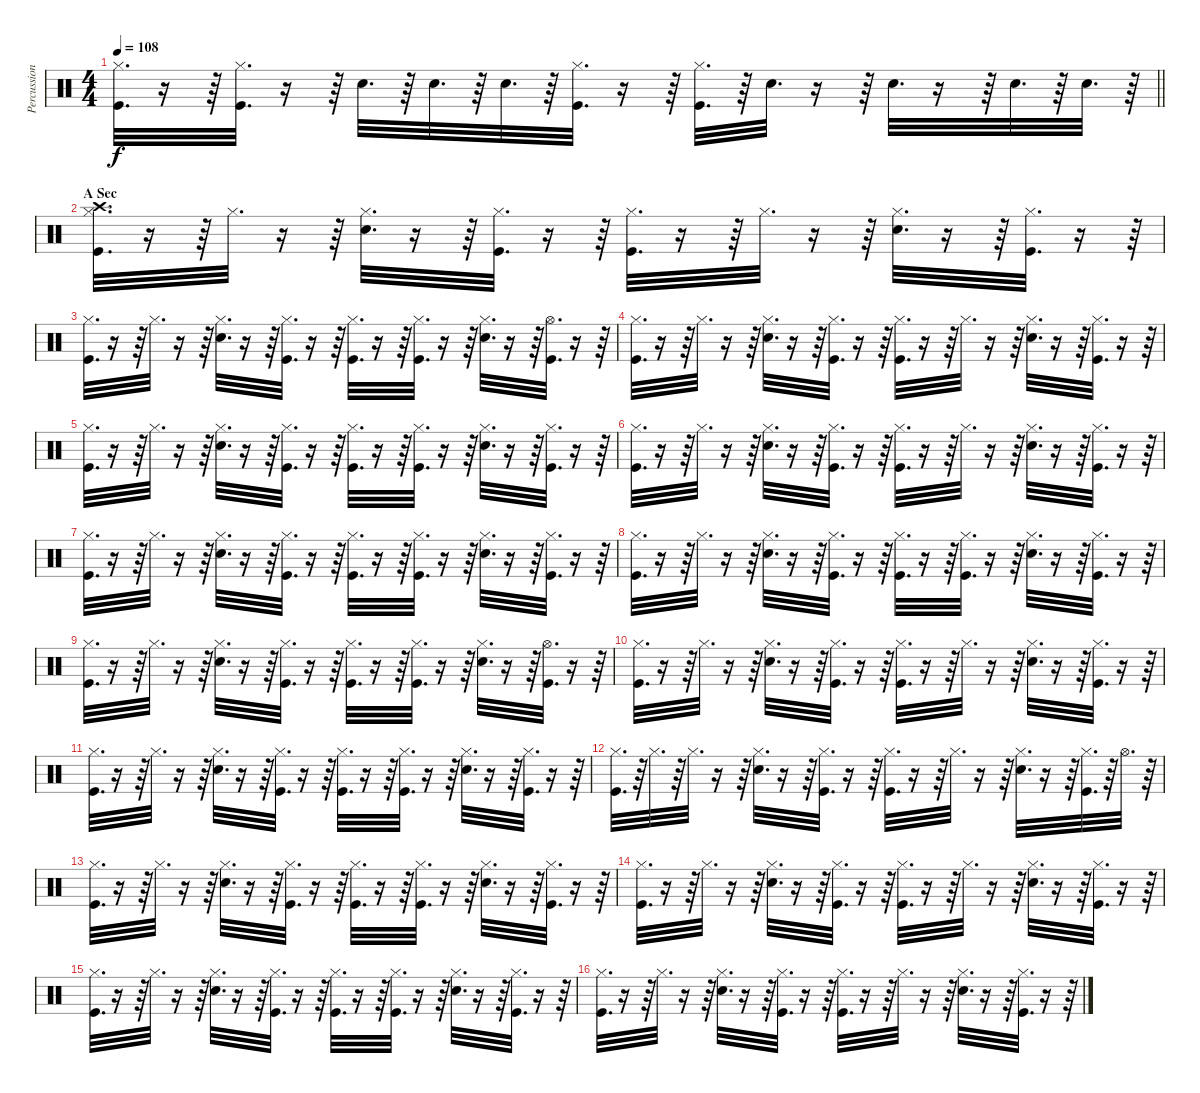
\track ("Percussions" "Percussion") {instrument percussion}
\staff {score}
\articulation defaults
\ts (4 4)
\tempo 108
\clef neutral
\barLineRight lightlight
\ks c
("Hi-Hat (closed)" "Kick (hit)").32{d dy f} r.16 r.64 ("Hi-Hat (closed)" "Kick (hit)").32{d} r.16 r.64 "Snare (hit) 2".32{d} r.64 "Snare (hit) 2".32{d} r.64 "Snare (hit) 2".32{d} r.64 ("Kick (hit)" "Hi-Hat (closed)").32{d} r.16 r.64 ("Kick (hit)" "Hi-Hat (closed)").32{d} r.64 "Snare (hit) 2".32{d} r.16 r.64 "Snare (hit) 2".32{d} r.16 r.64 "Snare (hit) 2".32{d} r.64 "Snare (hit) 2".32{d} r.64 |
\section ("" "A Sec")
("Crash high (hit)" "Hi-Hat (closed)" "Kick (hit)").32{d} r.16 r.64 "Hi-Hat (closed)".32{d} r.16 r.64 ("Hi-Hat (closed)" "Snare (hit) 2").32{d} r.16 r.64 ("Hi-Hat (closed)" "Kick (hit)").32{d} r.16 r.64 ("Hi-Hat (closed)" "Kick (hit)").32{d} r.16 r.64 "Hi-Hat (closed)".32{d} r.16 r.64 ("Hi-Hat (closed)" "Snare (hit) 2").32{d} r.16 r.64 ("Hi-Hat (closed)" "Kick (hit)").32{d} r.16 r.64 |
("Hi-Hat (closed)" "Kick (hit)").32{d} r.16 r.64 "Hi-Hat (closed)".32{d} r.16 r.64 ("Hi-Hat (closed)" "Snare (hit) 2").32{d} r.16 r.64 ("Hi-Hat (closed)" "Kick (hit)").32{d} r.16 r.64 ("Hi-Hat (closed)" "Kick (hit)").32{d} r.16 r.64 ("Hi-Hat (closed)" "Kick (hit)").32{d} r.16 r.64 ("Hi-Hat (closed)" "Snare (hit) 2").32{d} r.16 r.64 ("Hi-Hat (open)" "Kick (hit)").32{d} r.16 r.64 |
("Hi-Hat (closed)" "Kick (hit)").32{d} r.16 r.64 "Hi-Hat (closed)".32{d} r.16 r.64 ("Hi-Hat (closed)" "Snare (hit) 2").32{d} r.16 r.64 ("Hi-Hat (closed)" "Kick (hit)").32{d} r.16 r.64 ("Hi-Hat (closed)" "Kick (hit)").32{d} r.16 r.64 "Hi-Hat (closed)".32{d} r.16 r.64 ("Hi-Hat (closed)" "Snare (hit) 2").32{d} r.16 r.64 ("Hi-Hat (closed)" "Kick (hit)").32{d} r.16 r.64 |
("Hi-Hat (closed)" "Kick (hit)").32{d} r.16 r.64 "Hi-Hat (closed)".32{d} r.16 r.64 ("Hi-Hat (closed)" "Snare (hit) 2").32{d} r.16 r.64 ("Hi-Hat (closed)" "Kick (hit)").32{d} r.16 r.64 ("Hi-Hat (closed)" "Kick (hit)").32{d} r.16 r.64 ("Hi-Hat (closed)" "Kick (hit)").32{d} r.16 r.64 ("Hi-Hat (closed)" "Snare (hit) 2").32{d} r.16 r.64 ("Hi-Hat (closed)" "Kick (hit)").32{d} r.16 r.64 |
("Hi-Hat (closed)" "Kick (hit)").32{d} r.16 r.64 "Hi-Hat (closed)".32{d} r.16 r.64 ("Hi-Hat (closed)" "Snare (hit) 2").32{d} r.16 r.64 ("Hi-Hat (closed)" "Kick (hit)").32{d} r.16 r.64 ("Hi-Hat (closed)" "Kick (hit)").32{d} r.16 r.64 "Hi-Hat (closed)".32{d} r.16 r.64 ("Hi-Hat (closed)" "Snare (hit) 2").32{d} r.16 r.64 ("Hi-Hat (closed)" "Kick (hit)").32{d} r.16 r.64 |
("Hi-Hat (closed)" "Kick (hit)").32{d} r.16 r.64 "Hi-Hat (closed)".32{d} r.16 r.64 ("Hi-Hat (closed)" "Snare (hit) 2").32{d} r.16 r.64 ("Hi-Hat (closed)" "Kick (hit)").32{d} r.16 r.64 ("Hi-Hat (closed)" "Kick (hit)").32{d} r.16 r.64 ("Hi-Hat (closed)" "Kick (hit)").32{d} r.16 r.64 ("Hi-Hat (closed)" "Snare (hit) 2").32{d} r.16 r.64 ("Hi-Hat (closed)" "Kick (hit)").32{d} r.16 r.64 |
("Hi-Hat (closed)" "Kick (hit)").32{d} r.16 r.64 "Hi-Hat (closed)".32{d} r.16 r.64 ("Hi-Hat (closed)" "Snare (hit) 2").32{d} r.16 r.64 ("Hi-Hat (closed)" "Kick (hit)").32{d} r.16 r.64 ("Hi-Hat (closed)" "Kick (hit)").32{d} r.16 r.64 ("Kick (hit)" "Hi-Hat (closed)").32{d} r.16 r.64 ("Hi-Hat (closed)" "Snare (hit) 2").32{d} r.16 r.64 ("Hi-Hat (closed)" "Kick (hit)").32{d txt ""} r.16 r.64 |
("Hi-Hat (closed)" "Kick (hit)").32{d} r.16 r.64 "Hi-Hat (closed)".32{d} r.16 r.64 ("Hi-Hat (closed)" "Snare (hit) 2").32{d} r.16 r.64 ("Hi-Hat (closed)" "Kick (hit)").32{d} r.16 r.64 ("Hi-Hat (closed)" "Kick (hit)").32{d} r.16 r.64 ("Hi-Hat (closed)" "Kick (hit)").32{d} r.16 r.64 ("Hi-Hat (closed)" "Snare (hit) 2").32{d} r.16 r.64 ("Hi-Hat (open)" "Kick (hit)").32{d} r.16 r.64 |
("Hi-Hat (closed)" "Kick (hit)").32{d} r.16 r.64 "Hi-Hat (closed)".32{d} r.16 r.64 ("Hi-Hat (closed)" "Snare (hit) 2").32{d} r.16 r.64 ("Hi-Hat (closed)" "Kick (hit)").32{d} r.16 r.64 ("Hi-Hat (closed)" "Kick (hit)").32{d} r.16 r.64 "Hi-Hat (closed)".32{d} r.16 r.64 ("Hi-Hat (closed)" "Snare (hit) 2").32{d} r.16 r.64 ("Hi-Hat (closed)" "Kick (hit)").32{d} r.16 r.64 |
("Hi-Hat (closed)" "Kick (hit)").32{d} r.16 r.64 "Hi-Hat (closed)".32{d} r.16 r.64 ("Hi-Hat (closed)" "Snare (hit) 2").32{d} r.16 r.64 ("Hi-Hat (closed)" "Kick (hit)").32{d} r.16 r.64 ("Hi-Hat (closed)" "Kick (hit)").32{d} r.16 r.64 ("Hi-Hat (closed)" "Kick (hit)").32{d} r.16 r.64 ("Hi-Hat (closed)" "Snare (hit) 2").32{d} r.16 r.64 ("Hi-Hat (closed)" "Kick (hit)").32{d} r.16 r.64 |
("Hi-Hat (closed)" "Kick (hit)").32{d} r.64 "Hi-Hat (closed)".32{d} r.64 "Hi-Hat (closed)".32{d} r.16 r.64 ("Hi-Hat (closed)" "Snare (hit) 2").32{d} r.16 r.64 ("Hi-Hat (closed)" "Kick (hit)").32{d} r.16 r.64 ("Hi-Hat (closed)" "Kick (hit)").32{d} r.16 r.64 "Hi-Hat (closed)".32{d} r.16 r.64 ("Hi-Hat (closed)" "Snare (hit) 2").32{d} r.16 r.64 ("Hi-Hat (closed)" "Kick (hit)").32{d} r.64 "Hi-Hat (open)".32{d} r.64 |
("Hi-Hat (closed)" "Kick (hit)").32{d} r.16 r.64 "Hi-Hat (closed)".32{d} r.16 r.64 ("Hi-Hat (closed)" "Snare (hit) 2").32{d} r.16 r.64 ("Hi-Hat (closed)" "Kick (hit)").32{d} r.16 r.64 ("Hi-Hat (closed)" "Kick (hit)").32{d} r.16 r.64 ("Hi-Hat (closed)" "Kick (hit)").32{d} r.16 r.64 ("Hi-Hat (closed)" "Snare (hit) 2").32{d} r.16 r.64 ("Hi-Hat (closed)" "Kick (hit)").32{d} r.16 r.64 |
("Hi-Hat (closed)" "Kick (hit)").32{d} r.16 r.64 "Hi-Hat (closed)".32{d} r.16 r.64 ("Hi-Hat (closed)" "Snare (hit) 2").32{d} r.16 r.64 ("Hi-Hat (closed)" "Kick (hit)").32{d} r.16 r.64 ("Hi-Hat (closed)" "Kick (hit)").32{d} r.16 r.64 "Hi-Hat (closed)".32{d} r.16 r.64 ("Hi-Hat (closed)" "Snare (hit) 2").32{d} r.16 r.64 ("Hi-Hat (closed)" "Kick (hit)").32{d} r.16 r.64 |
("Hi-Hat (closed)" "Kick (hit)").32{d} r.16 r.64 "Hi-Hat (closed)".32{d} r.16 r.64 ("Hi-Hat (closed)" "Snare (hit) 2").32{d} r.16 r.64 ("Hi-Hat (closed)" "Kick (hit)").32{d} r.16 r.64 ("Hi-Hat (closed)" "Kick (hit)").32{d} r.16 r.64 ("Hi-Hat (closed)" "Kick (hit)").32{d} r.16 r.64 ("Hi-Hat (closed)" "Snare (hit) 2").32{d} r.16 r.64 ("Hi-Hat (closed)" "Kick (hit)").32{d} r.16 r.64 |
("Hi-Hat (closed)" "Kick (hit)").32{d} r.16 r.64 "Hi-Hat (closed)".32{d} r.16 r.64 ("Hi-Hat (closed)" "Snare (hit) 2").32{d} r.16 r.64 ("Hi-Hat (closed)" "Kick (hit)").32{d} r.16 r.64 ("Hi-Hat (closed)" "Kick (hit)").32{d} r.16 r.64 "Hi-Hat (closed)".32{d} r.16 r.64 ("Hi-Hat (closed)" "Snare (hit) 2").32{d} r.16 r.64 ("Hi-Hat (closed)" "Kick (hit)").32{d} r.16 r.64
